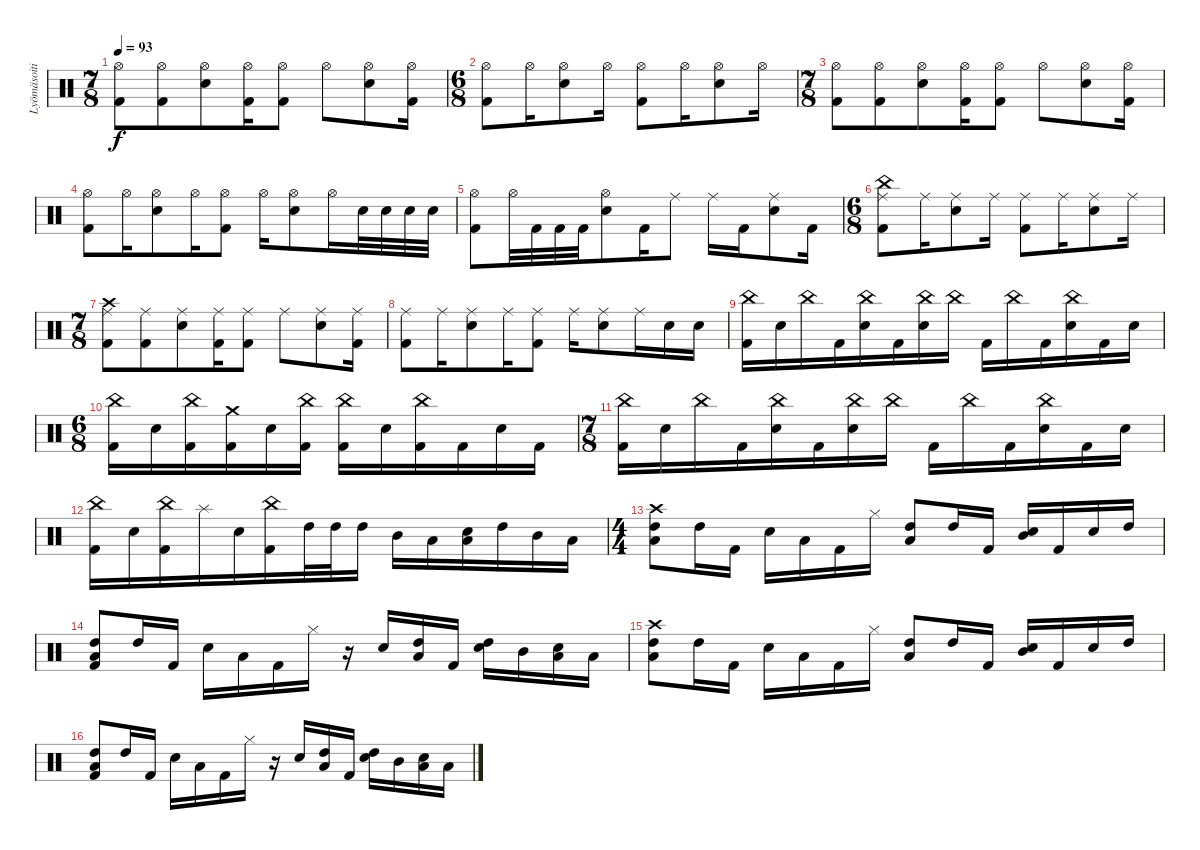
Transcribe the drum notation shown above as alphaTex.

\track ("Lyömäsoitin" "Lyömäsoiti") {instrument percussion}
\staff {score}
\articulation defaults
\ts (7 8)
\tempo 93
\clef neutral
\ks c
("Hi-Hat (open)" "Kick (hit) 2").8{dy f} ("Hi-Hat (open)" "Kick (hit) 2").8 ("Hi-Hat (open)" "Electric Snare (hit)").8 ("Hi-Hat (open)" "Kick (hit) 2").16 ("Hi-Hat (open)" "Kick (hit) 2").8 "Hi-Hat (open)".8 ("Hi-Hat (open)" "Electric Snare (hit)").8 ("Hi-Hat (open)" "Kick (hit) 2").16 |
\ts (6 8)
("Hi-Hat (open)" "Kick (hit) 2").8 "Hi-Hat (open)".16 ("Hi-Hat (open)" "Electric Snare (hit)").8 "Hi-Hat (open)".16 ("Hi-Hat (open)" "Kick (hit) 2").8 "Hi-Hat (open)".16 ("Hi-Hat (open)" "Electric Snare (hit)").8 "Hi-Hat (open)".16 |
\ts (7 8)
("Hi-Hat (open)" "Kick (hit) 2").8 ("Hi-Hat (open)" "Kick (hit) 2").8 ("Hi-Hat (open)" "Electric Snare (hit)").8 ("Hi-Hat (open)" "Kick (hit) 2").16 ("Hi-Hat (open)" "Kick (hit) 2").8 "Hi-Hat (open)".8 ("Hi-Hat (open)" "Electric Snare (hit)").8 ("Hi-Hat (open)" "Kick (hit) 2").16 |
("Hi-Hat (open)" "Kick (hit) 2").8 "Hi-Hat (open)".16 ("Hi-Hat (open)" "Electric Snare (hit)").8 "Hi-Hat (open)".16 ("Hi-Hat (open)" "Kick (hit) 2").8 "Hi-Hat (open)".16 ("Hi-Hat (open)" "Electric Snare (hit)").8 "Hi-Hat (open)".16 "Electric Snare (hit)".32 "Electric Snare (hit)".32 "Electric Snare (hit)".32 "Electric Snare (hit)".32 |
("Hi-Hat (open)" "Kick (hit) 2").8 "Hi-Hat (open)".32 "Kick (hit) 2".32 "Kick (hit) 2".32 "Kick (hit) 2".32 ("Hi-Hat (open)" "Electric Snare (hit)").8 "Kick (hit) 2".16 "Ride (middle)".8 "Ride (middle)".16 "Kick (hit) 2".16 ("Ride (middle)" "Electric Snare (hit)").8 "Kick (hit) 2".16 |
\ts (6 8)
("Ride (middle)" "Kick (hit) 2" "China (hit)").8 "Ride (middle)".16 ("Ride (middle)" "Electric Snare (hit)").8 "Ride (middle)".16 ("Ride (middle)" "Kick (hit) 2").8 "Ride (middle)".16 ("Ride (middle)" "Electric Snare (hit)").8 "Ride (middle)".16 |
\ts (7 8)
("Ride (middle)" "Kick (hit) 2" "Crash high (hit)").8 ("Ride (middle)" "Kick (hit) 2").8 ("Ride (middle)" "Electric Snare (hit)").8 ("Ride (middle)" "Kick (hit) 2").16 ("Ride (middle)" "Kick (hit) 2").8 "Ride (middle)".8 ("Ride (middle)" "Electric Snare (hit)").8 ("Ride (middle)" "Kick (hit) 2").16 |
("Ride (middle)" "Kick (hit) 2").8 "Ride (middle)".16 ("Ride (middle)" "Electric Snare (hit)").8 "Ride (middle)".16 ("Ride (middle)" "Kick (hit) 2").8 "Ride (middle)".16 ("Ride (middle)" "Electric Snare (hit)").8 "Ride (middle)".16 "Electric Snare (hit)".16 "Electric Snare (hit)".16 |
("China (hit)" "Kick (hit) 2").16 "Electric Snare (hit)".16 "China (hit)".16 "Kick (hit) 2".16 ("China (hit)" "Electric Snare (hit)").16 "Kick (hit) 2".16 ("Electric Snare (hit)" "China (hit)").16 "China (hit)".16 "Kick (hit) 2".16 "China (hit)".16 "Kick (hit) 2".16 ("China (hit)" "Electric Snare (hit)").16 "Kick (hit) 2".16 "Electric Snare (hit)".16 |
\ts (6 8)
("China (hit)" "Kick (hit) 2").16 "Electric Snare (hit)".16 ("China (hit)" "Kick (hit) 2").16 ("Crash medium (hit)" "Kick (hit) 2").16 "Electric Snare (hit)".16 ("Kick (hit) 2" "China (hit)").16 ("China (hit)" "Kick (hit) 2").16 "Electric Snare (hit)".16 ("Kick (hit) 2" "China (hit)").16 "Kick (hit) 2".16 "Electric Snare (hit)".16 "Kick (hit) 2".16 |
\ts (7 8)
("China (hit)" "Kick (hit) 2").16 "Electric Snare (hit)".16 "China (hit)".16 "Kick (hit) 2".16 ("China (hit)" "Electric Snare (hit)").16 "Kick (hit) 2".16 ("Electric Snare (hit)" "China (hit)").16 "China (hit)".16 "Kick (hit) 2".16 "China (hit)".16 "Kick (hit) 2".16 ("China (hit)" "Electric Snare (hit)").16 "Kick (hit) 2".16 "Electric Snare (hit)".16 |
("China (hit)" "Kick (hit) 2").16 "Electric Snare (hit)".16 ("China (hit)" "Kick (hit) 2").16 "Splash (hit)".16 "Electric Snare (hit)".16 ("Kick (hit) 2" "China (hit)").16 "High Tom (hit)".32 "High Tom (hit)".32 "High Tom (hit)".16 "Mid Tom (hit)".16 "Low Tom (hit)".16 ("Low Floor Tom (hit)" "Electric Snare (hit)").16 "High Tom (hit)".16 "Mid Tom (hit)".16 "Low Tom (hit)".16 |
\ts (4 4)
("Crash high (hit)" "Low Floor Tom (hit)" "High Tom (hit)").8 "High Tom (hit)".16 "Kick (hit) 2".16 "Electric Snare (hit)".16 "Low Floor Tom (hit)".16 "Kick (hit) 2".16 "Hi-Hat (closed)".16 ("Low Floor Tom (hit)" "High Tom (hit)").8 "High Tom (hit)".16 "Kick (hit) 2".16 ("Electric Snare (hit)" "Mid Tom (hit)").16 "Kick (hit) 2".16 "Electric Snare (hit)".16 "High Tom (hit)".16 |
("Kick (hit) 2" "High Tom (hit)" "Low Floor Tom (hit)").8 "High Tom (hit)".16 "Kick (hit) 2".16 "Electric Snare (hit)".16 "Low Floor Tom (hit)".16 "Kick (hit) 2".16 "Hi-Hat (closed)".16 r.16 "Electric Snare (hit)".16 ("Low Floor Tom (hit)" "High Tom (hit)").16 "Kick (hit) 2".16 ("High Tom (hit)" "Electric Snare (hit)").16 "Mid Tom (hit)".16 ("Low Tom (hit)" "Electric Snare (hit)").16 "Low Floor Tom (hit)".16 |
("Crash high (hit)" "Low Floor Tom (hit)" "High Tom (hit)").8 "High Tom (hit)".16 "Kick (hit) 2".16 "Electric Snare (hit)".16 "Low Floor Tom (hit)".16 "Kick (hit) 2".16 "Hi-Hat (closed)".16 ("Low Floor Tom (hit)" "High Tom (hit)").8 "High Tom (hit)".16 "Kick (hit) 2".16 ("Electric Snare (hit)" "Mid Tom (hit)").16 "Kick (hit) 2".16 "Electric Snare (hit)".16 "High Tom (hit)".16 |
("Kick (hit) 2" "High Tom (hit)" "Low Floor Tom (hit)").8 "High Tom (hit)".16 "Kick (hit) 2".16 "Electric Snare (hit)".16 "Low Floor Tom (hit)".16 "Kick (hit) 2".16 "Hi-Hat (closed)".16 r.16 "Electric Snare (hit)".16 ("Low Floor Tom (hit)" "High Tom (hit)").16 "Kick (hit) 2".16 ("High Tom (hit)" "Electric Snare (hit)").16 "Mid Tom (hit)".16 ("Low Tom (hit)" "Electric Snare (hit)").16 "Low Floor Tom (hit)".16
